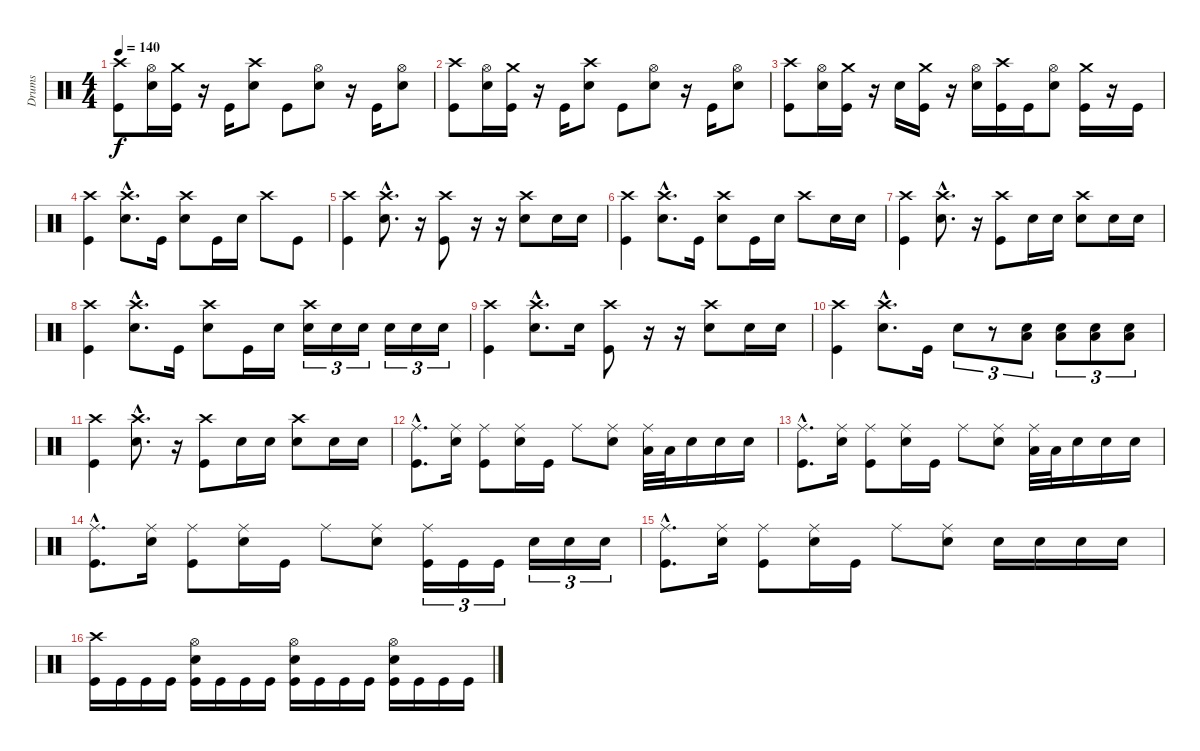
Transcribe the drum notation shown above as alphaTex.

\track ("Drums" "Drums") {instrument percussion}
\staff {score}
\articulation defaults
\ts (4 4)
\tempo 140
\clef neutral
\ks c
("Kick (hit)" "Crash high (hit)").8{dy f} ("Snare (hit) 2" "Hi-Hat (open)").16 ("Kick (hit)" "Crash medium (hit)").16 r.16 "Kick (hit)".16 ("Snare (hit) 2" "Crash high (hit)").8 "Kick (hit)".8 ("Snare (hit) 2" "Hi-Hat (open)").8 r.16 "Kick (hit)".16 ("Snare (hit) 2" "Hi-Hat (open)").8 |
("Kick (hit)" "Crash high (hit)").8 ("Snare (hit) 2" "Hi-Hat (open)").16 ("Kick (hit)" "Crash medium (hit)").16 r.16 "Kick (hit)".16 ("Snare (hit) 2" "Crash high (hit)").8 "Kick (hit)".8 ("Snare (hit) 2" "Hi-Hat (open)").8 r.16 "Kick (hit)".16 ("Snare (hit) 2" "Hi-Hat (open)").8 |
("Kick (hit)" "Crash high (hit)").8 ("Snare (hit) 2" "Hi-Hat (open)").16 ("Kick (hit)" "Crash medium (hit)").16 r.16 "Snare (hit) 2".16 ("Kick (hit)" "Crash medium (hit)").16 r.16 ("Snare (hit) 2" "Hi-Hat (open)").16 ("Kick (hit)" "Crash high (hit)").16 "Kick (hit)".16 ("Snare (hit) 2" "Hi-Hat (open)").8 ("Kick (hit)" "Crash medium (hit)").16 r.16 "Kick (hit)".16 |
("Kick (hit)" "Crash high (hit)").4 ("Snare (hit) 2"{hac} "Crash high (hit)"{hac}).8{d} "Kick (hit)".16 ("Snare (hit) 2" "Crash high (hit)").8 "Kick (hit)".16 "Snare (hit) 2".16 "Crash high (hit)".8 "Kick (hit)".8 |
("Kick (hit)" "Crash high (hit)").4 ("Snare (hit) 2"{hac} "Crash high (hit)"{hac}).8{d} r.16 ("Kick (hit)" "Crash high (hit)").8 r.16 r.16 ("Snare (hit) 2" "Crash high (hit)").8 "Snare (hit) 2".16 "Snare (hit) 2".16 |
("Kick (hit)" "Crash high (hit)").4 ("Snare (hit) 2"{hac} "Crash high (hit)"{hac}).8{d} "Kick (hit)".16 ("Snare (hit) 2" "Crash high (hit)").8 "Kick (hit)".16 "Snare (hit) 2".16 "Crash high (hit)".8 "Snare (hit) 2".16 "Snare (hit) 2".16 |
("Kick (hit)" "Crash high (hit)").4 ("Snare (hit) 2"{hac} "Crash high (hit)"{hac}).8{d} r.16 ("Kick (hit)" "Crash high (hit)").8 "Snare (hit) 2".16 "Snare (hit) 2".16 ("Snare (hit) 2" "Crash high (hit)").8 "Snare (hit) 2".16 "Snare (hit) 2".16 |
("Kick (hit)" "Crash high (hit)").4 ("Snare (hit) 2"{hac} "Crash high (hit)"{hac}).8{d} "Kick (hit)".16 ("Snare (hit) 2" "Crash high (hit)").8 "Kick (hit)".16 "Snare (hit) 2".16 ("Snare (hit) 2" "Crash high (hit)").16{tu (3 2)} "Snare (hit) 2".16{tu (3 2)} "Snare (hit) 2".16{tu (3 2)} "Snare (hit) 2".16{tu (3 2)} "Snare (hit) 2".16{tu (3 2)} "Snare (hit) 2".16{tu (3 2)} |
("Kick (hit)" "Crash high (hit)").4 ("Snare (hit) 2"{hac} "Crash high (hit)"{hac}).8{d} "Snare (hit) 2".16 ("Kick (hit)" "Crash high (hit)").8 r.16 r.16 ("Snare (hit) 2" "Crash high (hit)").8 "Snare (hit) 2".16 "Snare (hit) 2".16 |
("Kick (hit)" "Crash high (hit)").4 ("Snare (hit) 2"{hac} "Crash high (hit)"{hac}).8{d} "Kick (hit)".16 "Snare (hit) 2".8{tu (3 2)} r.8{tu (3 2)} ("Snare (hit) 2" "Low Tom (hit)").8{tu (3 2)} ("Snare (hit) 2" "Low Tom (hit)").8{tu (3 2)} ("Snare (hit) 2" "Low Tom (hit)").8{tu (3 2)} ("Snare (hit) 2" "Low Tom (hit)").8{tu (3 2)} |
("Kick (hit)" "Crash high (hit)").4 ("Snare (hit) 2"{hac} "Crash high (hit)"{hac}).8{d} r.16 ("Kick (hit)" "Crash high (hit)").8 "Snare (hit) 2".16 "Snare (hit) 2".16 ("Snare (hit) 2" "Crash high (hit)").8 "Snare (hit) 2".16 "Snare (hit) 2".16 |
("Kick (hit)"{hac} "Ride (middle)"{hac}).8{d} ("Snare (hit) 2" "Ride (middle)").16 ("Kick (hit)" "Ride (middle)").8 ("Snare (hit) 2" "Ride (middle)").16 "Kick (hit)".16 "Ride (middle)".8 ("Snare (hit) 2" "Ride (middle)").8 ("Low Tom (hit)" "Ride (middle)").32 "Low Tom (hit)".32 "Snare (hit) 2".16 "Snare (hit) 2".16 "Snare (hit) 2".16 |
("Kick (hit)"{hac} "Ride (middle)"{hac}).8{d} ("Snare (hit) 2" "Ride (middle)").16 ("Kick (hit)" "Ride (middle)").8 ("Snare (hit) 2" "Ride (middle)").16 "Kick (hit)".16 "Ride (middle)".8 ("Snare (hit) 2" "Ride (middle)").8 ("Low Tom (hit)" "Ride (middle)").32 "Low Tom (hit)".32 "Snare (hit) 2".16 "Snare (hit) 2".16 "Snare (hit) 2".16 |
("Kick (hit)"{hac} "Ride (middle)"{hac}).8{d} ("Snare (hit) 2" "Ride (middle)").16 ("Kick (hit)" "Ride (middle)").8 ("Snare (hit) 2" "Ride (middle)").16 "Kick (hit)".16 "Ride (middle)".8 ("Snare (hit) 2" "Ride (middle)").8 ("Kick (hit)" "Ride (middle)").16{tu (3 2)} "Kick (hit)".16{tu (3 2)} "Kick (hit)".16{tu (3 2)} "Snare (hit) 2".16{tu (3 2)} "Snare (hit) 2".16{tu (3 2)} "Snare (hit) 2".16{tu (3 2)} |
("Kick (hit)"{hac} "Ride (middle)"{hac}).8{d} ("Snare (hit) 2" "Ride (middle)").16 ("Kick (hit)" "Ride (middle)").8 ("Snare (hit) 2" "Ride (middle)").16 "Kick (hit)".16 "Ride (middle)".8 ("Snare (hit) 2" "Ride (middle)").8 "Snare (hit) 2".16 "Snare (hit) 2".16 "Snare (hit) 2".16 "Snare (hit) 2".16 |
("Kick (hit)" "Crash high (hit)").16 "Kick (hit)".16 "Kick (hit)".16 "Kick (hit)".16 ("Kick (hit)" "Snare (hit) 2" "Hi-Hat (open)").16 "Kick (hit)".16 "Kick (hit)".16 "Kick (hit)".16 ("Kick (hit)" "Snare (hit) 2" "Hi-Hat (open)").16 "Kick (hit)".16 "Kick (hit)".16 "Kick (hit)".16 ("Kick (hit)" "Snare (hit) 2" "Hi-Hat (open)").16 "Kick (hit)".16 "Kick (hit)".16 "Kick (hit)".16
